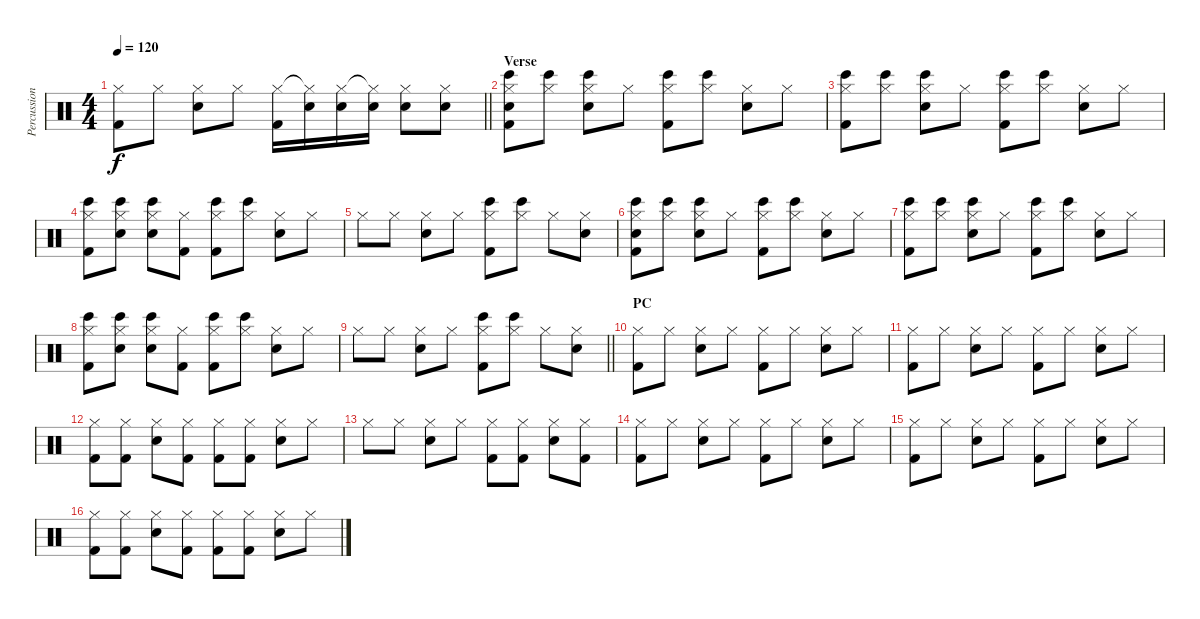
\track ("Percussion" "Percussion") {instrument percussion}
\staff {score}
\articulation defaults
\ts (4 4)
\tempo 120
\clef neutral
\barLineRight lightlight
\ks c
("Hi-Hat (closed)" "Kick (hit) 2").8{dy f} "Hi-Hat (closed)".8 ("Hi-Hat (closed)" "Electric Snare (hit)").8 "Hi-Hat (closed)".8 ("Hi-Hat (closed)" "Kick (hit) 2").16 ("Hi-Hat (closed)"{t} "Electric Snare (hit)").16 ("Hi-Hat (closed)" "Electric Snare (hit)").16 ("Hi-Hat (closed)"{t} "Electric Snare (hit)").16 ("Hi-Hat (closed)" "Electric Snare (hit)").8 ("Hi-Hat (closed)" "Electric Snare (hit)").8 |
\section ("" "Verse")
("Hi-Hat (closed)" "Bongo High (hit)" "Snare (hit) 2" "Kick (hit) 2").8 ("Hi-Hat (closed)" "Bongo High (hit)").8 ("Hi-Hat (closed)" "Bongo High (hit)" "Snare (hit) 2").8 "Hi-Hat (closed)".8 ("Hi-Hat (closed)" "Bongo High (hit)" "Kick (hit) 2").8 ("Hi-Hat (closed)" "Bongo High (hit)").8 ("Hi-Hat (closed)" "Snare (hit) 2").8 "Hi-Hat (closed)".8 |
("Hi-Hat (closed)" "Bongo High (hit)" "Kick (hit) 2").8 ("Hi-Hat (closed)" "Bongo High (hit)").8 ("Hi-Hat (closed)" "Bongo High (hit)" "Snare (hit) 2").8 "Hi-Hat (closed)".8 ("Hi-Hat (closed)" "Bongo High (hit)" "Kick (hit) 2").8 ("Hi-Hat (closed)" "Bongo High (hit)").8 ("Hi-Hat (closed)" "Snare (hit) 2").8 "Hi-Hat (closed)".8 |
("Hi-Hat (closed)" "Bongo High (hit)" "Kick (hit) 2").8 ("Hi-Hat (closed)" "Bongo High (hit)" "Snare (hit) 2").8 ("Hi-Hat (closed)" "Bongo High (hit)" "Snare (hit) 2").8 ("Hi-Hat (closed)" "Kick (hit) 2").8 ("Hi-Hat (closed)" "Bongo High (hit)" "Kick (hit) 2").8 ("Hi-Hat (closed)" "Bongo High (hit)").8 ("Hi-Hat (closed)" "Snare (hit) 2").8 "Hi-Hat (closed)".8 |
"Hi-Hat (closed)".8 "Hi-Hat (closed)".8 ("Hi-Hat (closed)" "Snare (hit) 2").8 "Hi-Hat (closed)".8 ("Hi-Hat (closed)" "Bongo High (hit)" "Kick (hit) 2").8 ("Hi-Hat (closed)" "Bongo High (hit)").8 "Hi-Hat (closed)".8 ("Hi-Hat (closed)" "Snare (hit) 2").8 |
("Hi-Hat (closed)" "Bongo High (hit)" "Snare (hit) 2" "Kick (hit) 2").8 ("Hi-Hat (closed)" "Bongo High (hit)").8 ("Hi-Hat (closed)" "Bongo High (hit)" "Snare (hit) 2").8 "Hi-Hat (closed)".8 ("Hi-Hat (closed)" "Bongo High (hit)" "Kick (hit) 2").8 ("Hi-Hat (closed)" "Bongo High (hit)").8 ("Hi-Hat (closed)" "Snare (hit) 2").8 "Hi-Hat (closed)".8 |
("Hi-Hat (closed)" "Bongo High (hit)" "Kick (hit) 2").8 ("Hi-Hat (closed)" "Bongo High (hit)").8 ("Hi-Hat (closed)" "Bongo High (hit)" "Snare (hit) 2").8 "Hi-Hat (closed)".8 ("Hi-Hat (closed)" "Bongo High (hit)" "Kick (hit) 2").8 ("Hi-Hat (closed)" "Bongo High (hit)").8 ("Hi-Hat (closed)" "Snare (hit) 2").8 "Hi-Hat (closed)".8 |
("Hi-Hat (closed)" "Bongo High (hit)" "Kick (hit) 2").8 ("Hi-Hat (closed)" "Bongo High (hit)" "Snare (hit) 2").8 ("Hi-Hat (closed)" "Bongo High (hit)" "Snare (hit) 2").8 ("Hi-Hat (closed)" "Kick (hit) 2").8 ("Hi-Hat (closed)" "Bongo High (hit)" "Kick (hit) 2").8 ("Hi-Hat (closed)" "Bongo High (hit)").8 ("Hi-Hat (closed)" "Snare (hit) 2").8 "Hi-Hat (closed)".8 |
\barLineRight lightlight "Hi-Hat (closed)".8 "Hi-Hat (closed)".8
("Hi-Hat (closed)" "Snare (hit) 2").8 "Hi-Hat (closed)".8 ("Hi-Hat (closed)" "Bongo High (hit)" "Kick (hit) 2").8 ("Hi-Hat (closed)" "Bongo High (hit)").8 "Hi-Hat (closed)".8 ("Hi-Hat (closed)" "Snare (hit) 2").8 |
\section ("" "PC")
("Hi-Hat (closed)" "Kick (hit) 2").8 "Hi-Hat (closed)".8 ("Hi-Hat (closed)" "Electric Snare (hit)").8 "Hi-Hat (closed)".8 ("Hi-Hat (closed)" "Kick (hit) 2").8 "Hi-Hat (closed)".8 ("Hi-Hat (closed)" "Electric Snare (hit)").8 "Hi-Hat (closed)".8 |
("Hi-Hat (closed)" "Kick (hit) 2").8 "Hi-Hat (closed)".8 ("Hi-Hat (closed)" "Electric Snare (hit)").8 "Hi-Hat (closed)".8 ("Hi-Hat (closed)" "Kick (hit) 2").8 "Hi-Hat (closed)".8 ("Hi-Hat (closed)" "Electric Snare (hit)").8 "Hi-Hat (closed)".8 |
("Hi-Hat (closed)" "Kick (hit) 2").8 ("Hi-Hat (closed)" "Kick (hit) 2").8 ("Hi-Hat (closed)" "Electric Snare (hit)").8 ("Hi-Hat (closed)" "Kick (hit) 2").8 ("Hi-Hat (closed)" "Kick (hit) 2").8 ("Hi-Hat (closed)" "Kick (hit) 2").8 ("Hi-Hat (closed)" "Electric Snare (hit)").8 "Hi-Hat (closed)".8 |
"Hi-Hat (closed)".8 "Hi-Hat (closed)".8 ("Hi-Hat (closed)" "Electric Snare (hit)").8 "Hi-Hat (closed)".8 ("Hi-Hat (closed)" "Kick (hit) 2").8 ("Hi-Hat (closed)" "Kick (hit) 2").8 ("Hi-Hat (closed)" "Electric Snare (hit)").8 ("Hi-Hat (closed)" "Kick (hit) 2").8 |
("Hi-Hat (closed)" "Kick (hit) 2").8 "Hi-Hat (closed)".8 ("Hi-Hat (closed)" "Electric Snare (hit)").8 "Hi-Hat (closed)".8 ("Hi-Hat (closed)" "Kick (hit) 2").8 "Hi-Hat (closed)".8 ("Hi-Hat (closed)" "Electric Snare (hit)").8 "Hi-Hat (closed)".8 |
("Hi-Hat (closed)" "Kick (hit) 2").8 "Hi-Hat (closed)".8 ("Hi-Hat (closed)" "Electric Snare (hit)").8 "Hi-Hat (closed)".8 ("Hi-Hat (closed)" "Kick (hit) 2").8 "Hi-Hat (closed)".8 ("Hi-Hat (closed)" "Electric Snare (hit)").8 "Hi-Hat (closed)".8 |
("Hi-Hat (closed)" "Kick (hit) 2").8 ("Hi-Hat (closed)" "Kick (hit) 2").8 ("Hi-Hat (closed)" "Electric Snare (hit)").8 ("Hi-Hat (closed)" "Kick (hit) 2").8 ("Hi-Hat (closed)" "Kick (hit) 2").8 ("Hi-Hat (closed)" "Kick (hit) 2").8 ("Hi-Hat (closed)" "Electric Snare (hit)").8 "Hi-Hat (closed)".8
